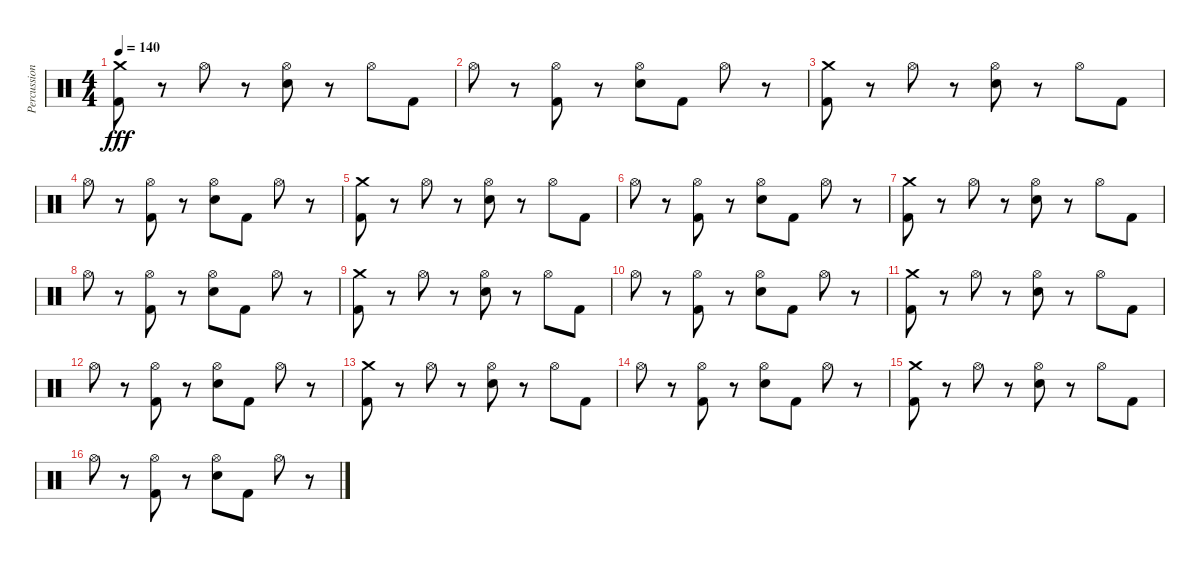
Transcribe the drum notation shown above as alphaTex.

\track ("Percussion" "Percussion") {instrument percussion}
\staff {score}
\articulation defaults
\ts (4 4)
\tempo 140
\clef neutral
\ks c
("Crash medium (hit)" "Kick (hit) 2").8{dy fff} r.8 "Hi-Hat (open)".8 r.8 ("Hi-Hat (open)" "Electric Snare (hit)").8 r.8 "Hi-Hat (open)".8 "Kick (hit) 2".8 |
"Hi-Hat (open)".8 r.8 ("Hi-Hat (open)" "Kick (hit) 2").8 r.8 ("Hi-Hat (open)" "Electric Snare (hit)").8 "Kick (hit) 2".8 "Hi-Hat (open)".8 r.8 |
("Crash medium (hit)" "Kick (hit) 2").8 r.8 "Hi-Hat (open)".8 r.8 ("Hi-Hat (open)" "Electric Snare (hit)").8 r.8 "Hi-Hat (open)".8 "Kick (hit) 2".8 |
"Hi-Hat (open)".8 r.8 ("Hi-Hat (open)" "Kick (hit) 2").8 r.8 ("Hi-Hat (open)" "Electric Snare (hit)").8 "Kick (hit) 2".8 "Hi-Hat (open)".8 r.8 |
("Crash medium (hit)" "Kick (hit) 2").8 r.8 "Hi-Hat (open)".8 r.8 ("Hi-Hat (open)" "Electric Snare (hit)").8 r.8 "Hi-Hat (open)".8 "Kick (hit) 2".8 |
"Hi-Hat (open)".8 r.8 ("Hi-Hat (open)" "Kick (hit) 2").8 r.8 ("Hi-Hat (open)" "Electric Snare (hit)").8 "Kick (hit) 2".8 "Hi-Hat (open)".8 r.8 |
("Crash medium (hit)" "Kick (hit) 2").8 r.8 "Hi-Hat (open)".8 r.8 ("Hi-Hat (open)" "Electric Snare (hit)").8 r.8 "Hi-Hat (open)".8 "Kick (hit) 2".8 |
"Hi-Hat (open)".8 r.8 ("Hi-Hat (open)" "Kick (hit) 2").8 r.8 ("Hi-Hat (open)" "Electric Snare (hit)").8 "Kick (hit) 2".8 "Hi-Hat (open)".8 r.8 |
("Crash medium (hit)" "Kick (hit) 2").8 r.8 "Hi-Hat (open)".8 r.8 ("Hi-Hat (open)" "Electric Snare (hit)").8 r.8 "Hi-Hat (open)".8 "Kick (hit) 2".8 |
"Hi-Hat (open)".8 r.8 ("Hi-Hat (open)" "Kick (hit) 2").8 r.8 ("Hi-Hat (open)" "Electric Snare (hit)").8 "Kick (hit) 2".8 "Hi-Hat (open)".8 r.8 |
("Crash medium (hit)" "Kick (hit) 2").8 r.8 "Hi-Hat (open)".8 r.8 ("Hi-Hat (open)" "Electric Snare (hit)").8 r.8 "Hi-Hat (open)".8 "Kick (hit) 2".8 |
"Hi-Hat (open)".8 r.8 ("Hi-Hat (open)" "Kick (hit) 2").8 r.8 ("Hi-Hat (open)" "Electric Snare (hit)").8 "Kick (hit) 2".8 "Hi-Hat (open)".8 r.8 |
("Crash medium (hit)" "Kick (hit) 2").8 r.8 "Hi-Hat (open)".8 r.8 ("Hi-Hat (open)" "Electric Snare (hit)").8 r.8 "Hi-Hat (open)".8 "Kick (hit) 2".8 |
"Hi-Hat (open)".8 r.8 ("Hi-Hat (open)" "Kick (hit) 2").8 r.8 ("Hi-Hat (open)" "Electric Snare (hit)").8 "Kick (hit) 2".8 "Hi-Hat (open)".8 r.8 |
("Crash medium (hit)" "Kick (hit) 2").8 r.8 "Hi-Hat (open)".8 r.8 ("Hi-Hat (open)" "Electric Snare (hit)").8 r.8 "Hi-Hat (open)".8 "Kick (hit) 2".8 |
"Hi-Hat (open)".8 r.8 ("Hi-Hat (open)" "Kick (hit) 2").8 r.8 ("Hi-Hat (open)" "Electric Snare (hit)").8 "Kick (hit) 2".8 "Hi-Hat (open)".8 r.8
